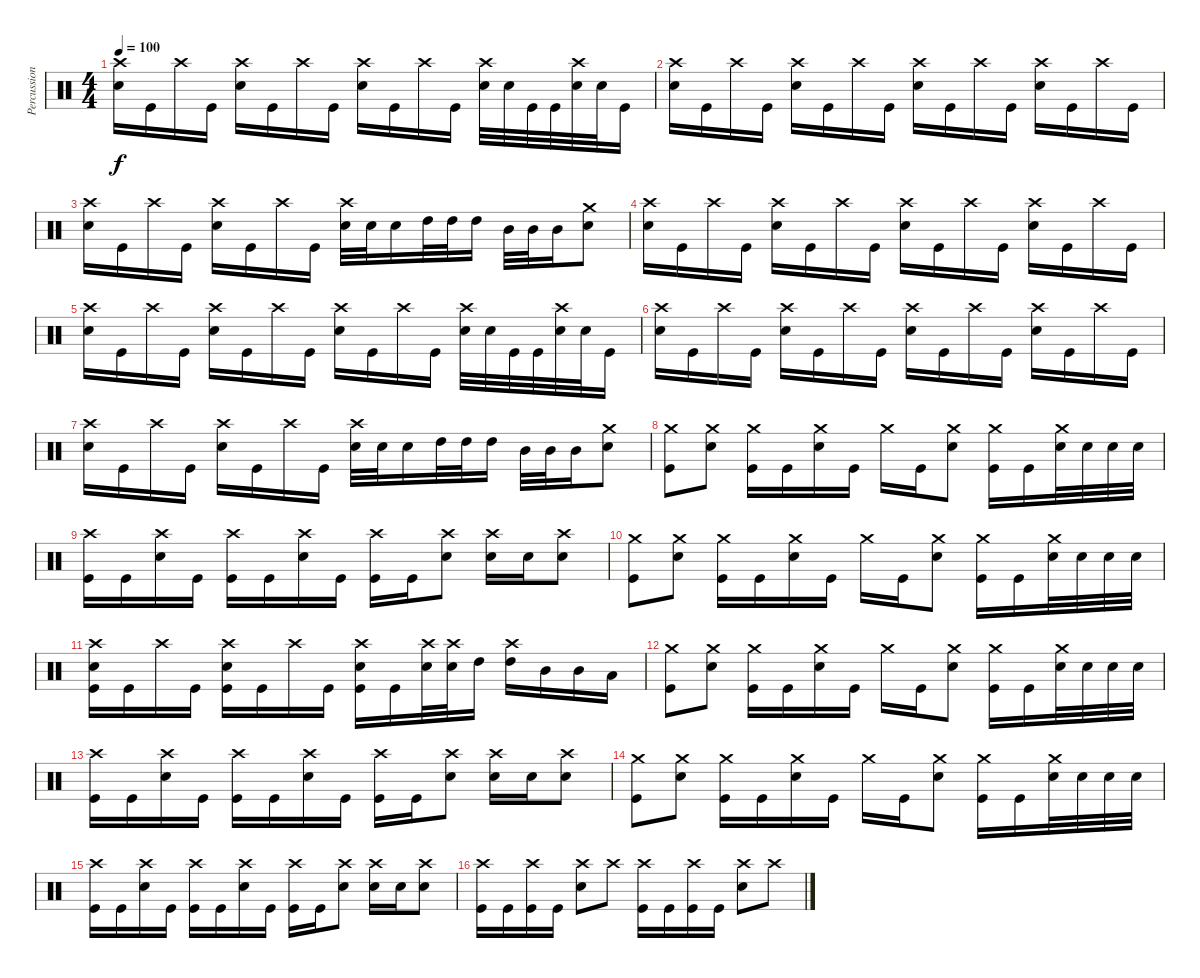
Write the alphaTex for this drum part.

\track ("Percussion" "Percussion") {instrument percussion}
\staff {score}
\articulation defaults
\ts (4 4)
\tempo 100
\clef neutral
\ks c
("Crash high (hit)" "Electric Snare (hit)").16{dy f} "Kick (hit)".16 "Crash high (hit)".16 "Kick (hit)".16 ("Crash high (hit)" "Electric Snare (hit)").16 "Kick (hit)".16 "Crash high (hit)".16 "Kick (hit)".16 ("Crash high (hit)" "Electric Snare (hit)").16 "Kick (hit)".16 "Crash high (hit)".16 "Kick (hit)".16 ("Crash high (hit)" "Electric Snare (hit)").32 "Electric Snare (hit)".32 "Kick (hit)".32 "Kick (hit)".32 ("Crash high (hit)" "Electric Snare (hit)").32 "Electric Snare (hit)".32 "Kick (hit)".16 |
("Crash high (hit)" "Electric Snare (hit)").16 "Kick (hit)".16 "Crash high (hit)".16 "Kick (hit)".16 ("Crash high (hit)" "Electric Snare (hit)").16 "Kick (hit)".16 "Crash high (hit)".16 "Kick (hit)".16 ("Crash high (hit)" "Electric Snare (hit)").16 "Kick (hit)".16 "Crash high (hit)".16 "Kick (hit)".16 ("Crash high (hit)" "Electric Snare (hit)").16 "Kick (hit)".16 "Crash high (hit)".16 "Kick (hit)".16 |
("Crash high (hit)" "Electric Snare (hit)").16 "Kick (hit)".16 "Crash high (hit)".16 "Kick (hit)".16 ("Crash high (hit)" "Electric Snare (hit)").16 "Kick (hit)".16 "Crash high (hit)".16 "Kick (hit)".16 ("Crash high (hit)" "Electric Snare (hit)").32 "Electric Snare (hit)".32 "Electric Snare (hit)".16 "High Tom (hit)".32 "High Tom (hit)".32 "High Tom (hit)".16 "Mid Tom (hit)".32 "Mid Tom (hit)".32 "Mid Tom (hit)".16 ("Electric Snare (hit)" "Crash medium (hit)").8 |
("Crash high (hit)" "Electric Snare (hit)").16 "Kick (hit)".16 "Crash high (hit)".16 "Kick (hit)".16 ("Crash high (hit)" "Electric Snare (hit)").16 "Kick (hit)".16 "Crash high (hit)".16 "Kick (hit)".16 ("Crash high (hit)" "Electric Snare (hit)").16 "Kick (hit)".16 "Crash high (hit)".16 "Kick (hit)".16 ("Crash high (hit)" "Electric Snare (hit)").16 "Kick (hit)".16 "Crash high (hit)".16 "Kick (hit)".16 |
("Crash high (hit)" "Electric Snare (hit)").16 "Kick (hit)".16 "Crash high (hit)".16 "Kick (hit)".16 ("Crash high (hit)" "Electric Snare (hit)").16 "Kick (hit)".16 "Crash high (hit)".16 "Kick (hit)".16 ("Crash high (hit)" "Electric Snare (hit)").16 "Kick (hit)".16 "Crash high (hit)".16 "Kick (hit)".16 ("Crash high (hit)" "Electric Snare (hit)").32 "Electric Snare (hit)".32 "Kick (hit)".32 "Kick (hit)".32 ("Crash high (hit)" "Electric Snare (hit)").32 "Electric Snare (hit)".32 "Kick (hit)".16 |
("Crash high (hit)" "Electric Snare (hit)").16 "Kick (hit)".16 "Crash high (hit)".16 "Kick (hit)".16 ("Crash high (hit)" "Electric Snare (hit)").16 "Kick (hit)".16 "Crash high (hit)".16 "Kick (hit)".16 ("Crash high (hit)" "Electric Snare (hit)").16 "Kick (hit)".16 "Crash high (hit)".16 "Kick (hit)".16 ("Crash high (hit)" "Electric Snare (hit)").16 "Kick (hit)".16 "Crash high (hit)".16 "Kick (hit)".16 |
("Crash high (hit)" "Electric Snare (hit)").16 "Kick (hit)".16 "Crash high (hit)".16 "Kick (hit)".16 ("Crash high (hit)" "Electric Snare (hit)").16 "Kick (hit)".16 "Crash high (hit)".16 "Kick (hit)".16 ("Crash high (hit)" "Electric Snare (hit)").32 "Electric Snare (hit)".32 "Electric Snare (hit)".16 "High Tom (hit)".32 "High Tom (hit)".32 "High Tom (hit)".16 "Mid Tom (hit)".32 "Mid Tom (hit)".32 "Mid Tom (hit)".16 ("Electric Snare (hit)" "Crash medium (hit)").8 |
("Crash medium (hit)" "Kick (hit)").8 ("Crash medium (hit)" "Electric Snare (hit)").8 ("Crash medium (hit)" "Kick (hit)").16 "Kick (hit)".16 ("Crash medium (hit)" "Electric Snare (hit)").16 "Kick (hit)".16 "Crash medium (hit)".16 "Kick (hit)".16 ("Crash medium (hit)" "Electric Snare (hit)").8 ("Crash medium (hit)" "Kick (hit)").16 "Kick (hit)".16 ("Crash medium (hit)" "Electric Snare (hit)").32 "Electric Snare (hit)".32 "Electric Snare (hit)".32 "Electric Snare (hit)".32 |
("Crash high (hit)" "Kick (hit)").16 "Kick (hit)".16 ("Crash high (hit)" "Electric Snare (hit)").16 "Kick (hit)".16 ("Crash high (hit)" "Kick (hit)").16 "Kick (hit)".16 ("Crash high (hit)" "Electric Snare (hit)").16 "Kick (hit)".16 ("Crash high (hit)" "Kick (hit)").16 "Kick (hit)".16 ("Crash high (hit)" "Electric Snare (hit)").8 ("Crash high (hit)" "Electric Snare (hit)").16 "Electric Snare (hit)".16 ("Crash high (hit)" "Electric Snare (hit)").8 |
("Crash medium (hit)" "Kick (hit)").8 ("Crash medium (hit)" "Electric Snare (hit)").8 ("Crash medium (hit)" "Kick (hit)").16 "Kick (hit)".16 ("Crash medium (hit)" "Electric Snare (hit)").16 "Kick (hit)".16 "Crash medium (hit)".16 "Kick (hit)".16 ("Crash medium (hit)" "Electric Snare (hit)").8 ("Crash medium (hit)" "Kick (hit)").16 "Kick (hit)".16 ("Crash medium (hit)" "Electric Snare (hit)").32 "Electric Snare (hit)".32 "Electric Snare (hit)".32 "Electric Snare (hit)".32 |
("Crash high (hit)" "Electric Snare (hit)" "Kick (hit)").16 "Kick (hit)".16 "Crash high (hit)".16 "Kick (hit)".16 ("Crash high (hit)" "Electric Snare (hit)" "Kick (hit)").16 "Kick (hit)".16 "Crash high (hit)".16 "Kick (hit)".16 ("Crash high (hit)" "Electric Snare (hit)" "Kick (hit)").16 "Kick (hit)".16 ("Crash high (hit)" "Electric Snare (hit)").32 ("Crash high (hit)" "Electric Snare (hit)").32 "High Tom (hit)".16 ("Crash high (hit)" "High Tom (hit)").16 "Mid Tom (hit)".16 "Mid Tom (hit)".16 "Low Tom (hit)".16 |
("Crash medium (hit)" "Kick (hit)").8 ("Crash medium (hit)" "Electric Snare (hit)").8 ("Crash medium (hit)" "Kick (hit)").16 "Kick (hit)".16 ("Crash medium (hit)" "Electric Snare (hit)").16 "Kick (hit)".16 "Crash medium (hit)".16 "Kick (hit)".16 ("Crash medium (hit)" "Electric Snare (hit)").8 ("Crash medium (hit)" "Kick (hit)").16 "Kick (hit)".16 ("Crash medium (hit)" "Electric Snare (hit)").32 "Electric Snare (hit)".32 "Electric Snare (hit)".32 "Electric Snare (hit)".32 |
("Crash high (hit)" "Kick (hit)").16 "Kick (hit)".16 ("Crash high (hit)" "Electric Snare (hit)").16 "Kick (hit)".16 ("Crash high (hit)" "Kick (hit)").16 "Kick (hit)".16 ("Crash high (hit)" "Electric Snare (hit)").16 "Kick (hit)".16 ("Crash high (hit)" "Kick (hit)").16 "Kick (hit)".16 ("Crash high (hit)" "Electric Snare (hit)").8 ("Crash high (hit)" "Electric Snare (hit)").16 "Electric Snare (hit)".16 ("Crash high (hit)" "Electric Snare (hit)").8 |
("Crash medium (hit)" "Kick (hit)").8 ("Crash medium (hit)" "Electric Snare (hit)").8 ("Crash medium (hit)" "Kick (hit)").16 "Kick (hit)".16 ("Crash medium (hit)" "Electric Snare (hit)").16 "Kick (hit)".16 "Crash medium (hit)".16 "Kick (hit)".16 ("Crash medium (hit)" "Electric Snare (hit)").8 ("Crash medium (hit)" "Kick (hit)").16 "Kick (hit)".16 ("Crash medium (hit)" "Electric Snare (hit)").32 "Electric Snare (hit)".32 "Electric Snare (hit)".32 "Electric Snare (hit)".32 |
("Crash high (hit)" "Kick (hit)").16 "Kick (hit)".16 ("Crash high (hit)" "Electric Snare (hit)").16 "Kick (hit)".16 ("Crash high (hit)" "Kick (hit)").16 "Kick (hit)".16 ("Crash high (hit)" "Electric Snare (hit)").16 "Kick (hit)".16 ("Crash high (hit)" "Kick (hit)").16 "Kick (hit)".16 ("Crash high (hit)" "Electric Snare (hit)").8 ("Crash high (hit)" "Electric Snare (hit)").16 "Electric Snare (hit)".16 ("Crash high (hit)" "Electric Snare (hit)").8 |
("Crash high (hit)" "Kick (hit)").16 "Kick (hit)".16 ("Crash high (hit)" "Kick (hit)").16 "Kick (hit)".16 ("Crash high (hit)" "Electric Snare (hit)").8 "Crash high (hit)".8 ("Crash high (hit)" "Kick (hit)").16 "Kick (hit)".16 ("Crash high (hit)" "Kick (hit)").16 "Kick (hit)".16 ("Crash high (hit)" "Electric Snare (hit)").8 "Crash high (hit)".8
